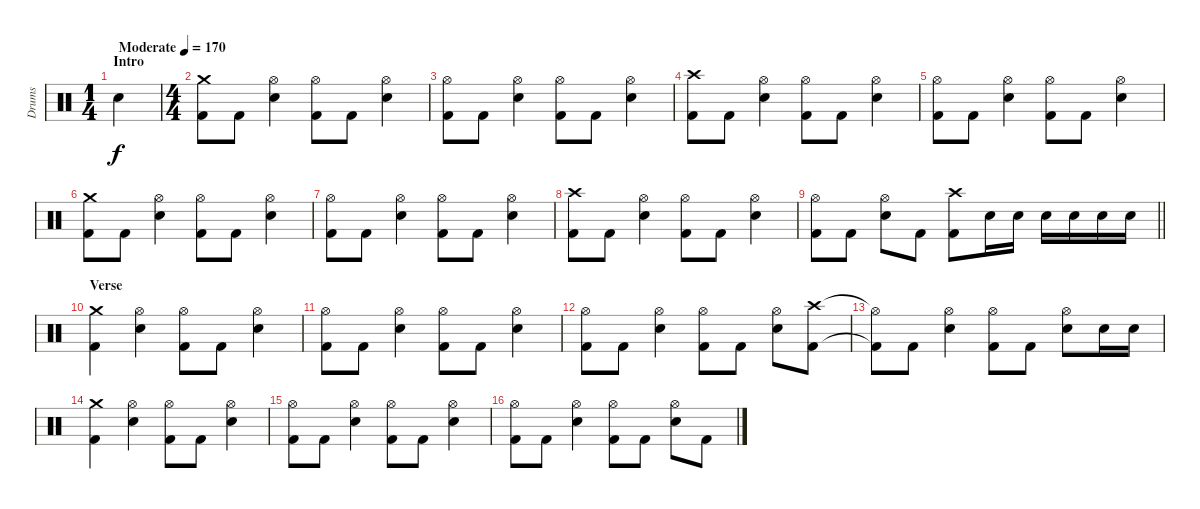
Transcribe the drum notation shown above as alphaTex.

\track ("Drums" "Drums") {instrument percussion}
\staff {score}
\articulation defaults
\ts (1 4)
\section ("" "Intro")
\tempo (170 "Moderate")
\clef neutral
\ks c "Electric Snare (hit)".4{dy f}
|
\ts (4 4)
("Crash medium (hit)" "Kick (hit) 2").8 "Kick (hit) 2".8 ("Hi-Hat (open)" "Electric Snare (hit)").4 ("Hi-Hat (open)" "Kick (hit) 2").8 "Kick (hit) 2".8 ("Hi-Hat (open)" "Electric Snare (hit)").4 |
("Hi-Hat (open)" "Kick (hit) 2").8 "Kick (hit) 2".8 ("Hi-Hat (open)" "Electric Snare (hit)").4 ("Hi-Hat (open)" "Kick (hit) 2").8 "Kick (hit) 2".8 ("Hi-Hat (open)" "Electric Snare (hit)").4 |
("Crash high (hit)" "Kick (hit) 2").8 "Kick (hit) 2".8 ("Hi-Hat (open)" "Electric Snare (hit)").4 ("Hi-Hat (open)" "Kick (hit) 2").8 "Kick (hit) 2".8 ("Hi-Hat (open)" "Electric Snare (hit)").4 |
("Hi-Hat (open)" "Kick (hit) 2").8 "Kick (hit) 2".8 ("Hi-Hat (open)" "Electric Snare (hit)").4 ("Hi-Hat (open)" "Kick (hit) 2").8 "Kick (hit) 2".8 ("Hi-Hat (open)" "Electric Snare (hit)").4 |
("Crash medium (hit)" "Kick (hit) 2").8 "Kick (hit) 2".8 ("Hi-Hat (open)" "Electric Snare (hit)").4 ("Hi-Hat (open)" "Kick (hit) 2").8 "Kick (hit) 2".8 ("Hi-Hat (open)" "Electric Snare (hit)").4 |
("Hi-Hat (open)" "Kick (hit) 2").8 "Kick (hit) 2".8 ("Hi-Hat (open)" "Electric Snare (hit)").4 ("Hi-Hat (open)" "Kick (hit) 2").8 "Kick (hit) 2".8 ("Hi-Hat (open)" "Electric Snare (hit)").4 |
("Crash high (hit)" "Kick (hit) 2").8 "Kick (hit) 2".8 ("Hi-Hat (open)" "Electric Snare (hit)").4 ("Hi-Hat (open)" "Kick (hit) 2").8 "Kick (hit) 2".8 ("Hi-Hat (open)" "Electric Snare (hit)").4 |
\barLineRight lightlight
("Hi-Hat (open)" "Kick (hit) 2").8 "Kick (hit) 2".8 ("Hi-Hat (open)" "Electric Snare (hit)").8 "Kick (hit) 2".8 ("Crash high (hit)" "Kick (hit) 2").8 "Electric Snare (hit)".16 "Electric Snare (hit)".16 "Electric Snare (hit)".16 "Electric Snare (hit)".16 "Electric Snare (hit)".16 "Electric Snare (hit)".16 |
\section ("" "Verse")
("Crash medium (hit)" "Kick (hit) 2").4 ("Hi-Hat (open)" "Electric Snare (hit)").4 ("Hi-Hat (open)" "Kick (hit) 2").8 "Kick (hit) 2".8 ("Hi-Hat (open)" "Electric Snare (hit)").4 |
("Hi-Hat (open)" "Kick (hit) 2").8 "Kick (hit) 2".8 ("Hi-Hat (open)" "Electric Snare (hit)").4 ("Hi-Hat (open)" "Kick (hit) 2").8 "Kick (hit) 2".8 ("Hi-Hat (open)" "Electric Snare (hit)").4 |
("Hi-Hat (open)" "Kick (hit) 2").8 "Kick (hit) 2".8 ("Hi-Hat (open)" "Electric Snare (hit)").4 ("Hi-Hat (open)" "Kick (hit) 2").8 "Kick (hit) 2".8 ("Hi-Hat (open)" "Electric Snare (hit)").8 ("Crash high (hit)" "Kick (hit) 2").8 |
("Hi-Hat (open)"{t} "Kick (hit) 2"{t}).8 "Kick (hit) 2".8 ("Hi-Hat (open)" "Electric Snare (hit)").4 ("Hi-Hat (open)" "Kick (hit) 2").8 "Kick (hit) 2".8 ("Hi-Hat (open)" "Electric Snare (hit)").8 "Electric Snare (hit)".16 "Electric Snare (hit)".16 |
("Crash medium (hit)" "Kick (hit) 2").4 ("Hi-Hat (open)" "Electric Snare (hit)").4 ("Hi-Hat (open)" "Kick (hit) 2").8 "Kick (hit) 2".8 ("Hi-Hat (open)" "Electric Snare (hit)").4 |
("Hi-Hat (open)" "Kick (hit) 2").8 "Kick (hit) 2".8 ("Hi-Hat (open)" "Electric Snare (hit)").4 ("Hi-Hat (open)" "Kick (hit) 2").8 "Kick (hit) 2".8 ("Hi-Hat (open)" "Electric Snare (hit)").4 |
("Hi-Hat (open)" "Kick (hit) 2").8 "Kick (hit) 2".8 ("Hi-Hat (open)" "Electric Snare (hit)").4 ("Hi-Hat (open)" "Kick (hit) 2").8 "Kick (hit) 2".8 ("Hi-Hat (open)" "Electric Snare (hit)").8 "Kick (hit) 2".8
